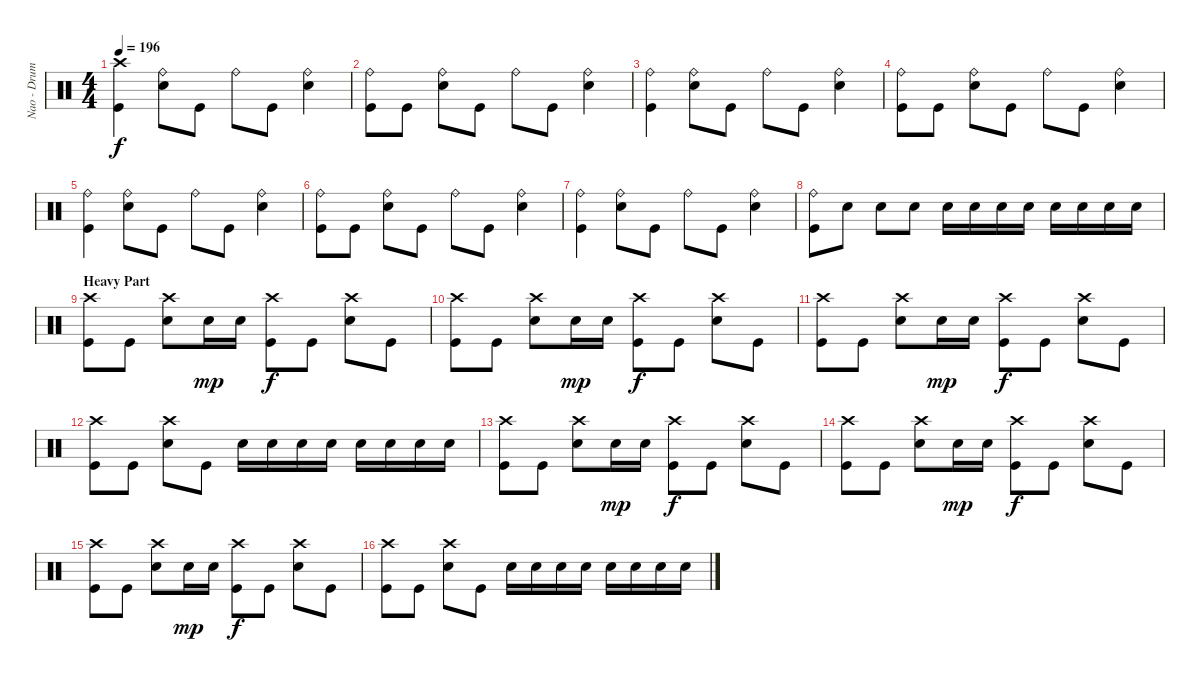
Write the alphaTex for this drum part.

\track ("Nao - Drums" "Nao - Drum") {instrument percussion}
\staff {score}
\articulation defaults
\ts (4 4)
\tempo 196
\clef neutral
\ks c
("Kick (hit)" "Crash high (hit)").4{dy f} ("Snare (hit) 2" "Ride (bell)").8 "Kick (hit)".8 "Ride (bell)".8 "Kick (hit)".8 ("Snare (hit) 2" "Ride (bell)").4 |
("Kick (hit)" "Ride (bell)").8 "Kick (hit)".8 ("Snare (hit) 2" "Ride (bell)").8 "Kick (hit)".8 "Ride (bell)".8 "Kick (hit)".8 ("Snare (hit) 2" "Ride (bell)").4 |
("Kick (hit)" "Ride (bell)").4 ("Snare (hit) 2" "Ride (bell)").8 "Kick (hit)".8 "Ride (bell)".8 "Kick (hit)".8 ("Snare (hit) 2" "Ride (bell)").4 |
("Kick (hit)" "Ride (bell)").8 "Kick (hit)".8 ("Snare (hit) 2" "Ride (bell)").8 "Kick (hit)".8 "Ride (bell)".8 "Kick (hit)".8 ("Snare (hit) 2" "Ride (bell)").4 |
("Kick (hit)" "Ride (bell)").4 ("Snare (hit) 2" "Ride (bell)").8 "Kick (hit)".8 "Ride (bell)".8 "Kick (hit)".8 ("Snare (hit) 2" "Ride (bell)").4 |
("Kick (hit)" "Ride (bell)").8 "Kick (hit)".8 ("Snare (hit) 2" "Ride (bell)").8 "Kick (hit)".8 "Ride (bell)".8 "Kick (hit)".8 ("Snare (hit) 2" "Ride (bell)").4 |
("Kick (hit)" "Ride (bell)").4 ("Snare (hit) 2" "Ride (bell)").8 "Kick (hit)".8 "Ride (bell)".8 "Kick (hit)".8 ("Snare (hit) 2" "Ride (bell)").4 |
("Kick (hit)" "Ride (bell)").8 "Snare (hit) 2".8 "Snare (hit) 2".8 "Snare (hit) 2".8 "Snare (hit) 2".16 "Snare (hit) 2".16 "Snare (hit) 2".16 "Snare (hit) 2".16 "Snare (hit) 2".16 "Snare (hit) 2".16 "Snare (hit) 2".16 "Snare (hit) 2".16 |
\section ("" "Heavy Part")
("Crash high (hit)" "Kick (hit)").8 "Kick (hit)".8 ("Snare (hit) 2" "Crash high (hit)").8 "Snare (hit) 2".16{dy mp} "Snare (hit) 2".16 ("Kick (hit)" "Crash high (hit)").8{dy f} "Kick (hit)".8 ("Snare (hit) 2" "Crash high (hit)").8 "Kick (hit)".8 |
("Crash high (hit)" "Kick (hit)").8 "Kick (hit)".8 ("Snare (hit) 2" "Crash high (hit)").8 "Snare (hit) 2".16{dy mp} "Snare (hit) 2".16 ("Kick (hit)" "Crash high (hit)").8{dy f} "Kick (hit)".8 ("Snare (hit) 2" "Crash high (hit)").8 "Kick (hit)".8 |
("Crash high (hit)" "Kick (hit)").8 "Kick (hit)".8 ("Snare (hit) 2" "Crash high (hit)").8 "Snare (hit) 2".16{dy mp} "Snare (hit) 2".16 ("Kick (hit)" "Crash high (hit)").8{dy f} "Kick (hit)".8 ("Snare (hit) 2" "Crash high (hit)").8 "Kick (hit)".8 |
("Crash high (hit)" "Kick (hit)").8 "Kick (hit)".8 ("Snare (hit) 2" "Crash high (hit)").8 "Kick (hit)".8 "Snare (hit) 2".16 "Snare (hit) 2".16 "Snare (hit) 2".16 "Snare (hit) 2".16 "Snare (hit) 2".16 "Snare (hit) 2".16 "Snare (hit) 2".16 "Snare (hit) 2".16 |
("Crash high (hit)" "Kick (hit)").8 "Kick (hit)".8 ("Snare (hit) 2" "Crash high (hit)").8 "Snare (hit) 2".16{dy mp} "Snare (hit) 2".16 ("Kick (hit)" "Crash high (hit)").8{dy f} "Kick (hit)".8 ("Snare (hit) 2" "Crash high (hit)").8 "Kick (hit)".8 |
("Crash high (hit)" "Kick (hit)").8 "Kick (hit)".8 ("Snare (hit) 2" "Crash high (hit)").8 "Snare (hit) 2".16{dy mp} "Snare (hit) 2".16 ("Kick (hit)" "Crash high (hit)").8{dy f} "Kick (hit)".8 ("Snare (hit) 2" "Crash high (hit)").8 "Kick (hit)".8 |
("Crash high (hit)" "Kick (hit)").8 "Kick (hit)".8 ("Snare (hit) 2" "Crash high (hit)").8 "Snare (hit) 2".16{dy mp} "Snare (hit) 2".16 ("Kick (hit)" "Crash high (hit)").8{dy f} "Kick (hit)".8 ("Snare (hit) 2" "Crash high (hit)").8 "Kick (hit)".8 |
("Crash high (hit)" "Kick (hit)").8 "Kick (hit)".8 ("Snare (hit) 2" "Crash high (hit)").8 "Kick (hit)".8 "Snare (hit) 2".16 "Snare (hit) 2".16 "Snare (hit) 2".16 "Snare (hit) 2".16 "Snare (hit) 2".16 "Snare (hit) 2".16 "Snare (hit) 2".16 "Snare (hit) 2".16
